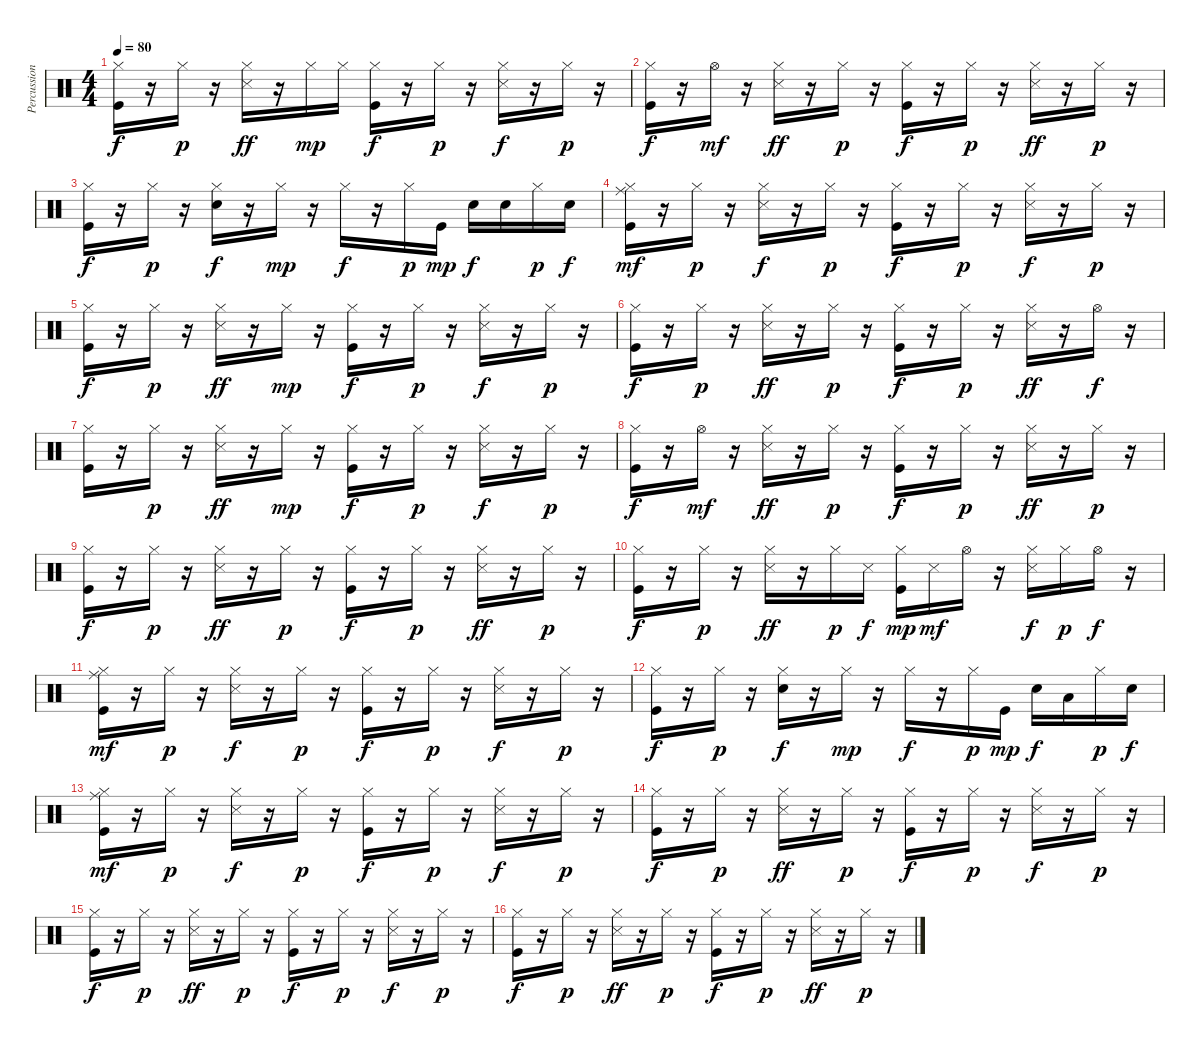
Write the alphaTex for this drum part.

\track ("Percussion" "Percussion") {instrument percussion}
\staff {score}
\articulation defaults
\ts (4 4)
\tempo 80
\clef neutral
\ks c
("Kick (hit)" "Hi-Hat (closed)").16{dy f} r.16 "Hi-Hat (closed)".16{dy p} r.16 ("Hi-Hat (closed)" "Snare (side stick) 3").16{dy ff} r.16 "Hi-Hat (closed)".16{dy mp} "Hi-Hat (closed)".16 ("Kick (hit)" "Hi-Hat (closed)").16{dy f} r.16 "Hi-Hat (closed)".16{dy p} r.16 ("Hi-Hat (closed)" "Snare (side stick) 3").16{dy f} r.16 "Hi-Hat (closed)".16{dy p} r.16 |
("Kick (hit)" "Hi-Hat (closed)").16{dy f} r.16 "Hi-Hat (open)".16{dy mf} r.16 ("Hi-Hat (closed)" "Snare (side stick) 3").16{dy ff} r.16 "Hi-Hat (closed)".16{dy p} r.16 ("Kick (hit)" "Hi-Hat (closed)").16{dy f} r.16 "Hi-Hat (closed)".16{dy p} r.16 ("Hi-Hat (closed)" "Snare (side stick) 3").16{dy ff} r.16 "Hi-Hat (closed)".16{dy p} r.16 |
("Kick (hit)" "Hi-Hat (closed)").16{dy f} r.16 "Hi-Hat (closed)".16{dy p} r.16 ("Snare (hit) 2" "Hi-Hat (closed)").16{dy f} r.16 "Hi-Hat (closed)".16{dy mp} r.16 "Hi-Hat (closed)".16{dy f} r.16 "Hi-Hat (closed)".16{dy p} "Kick (hit)".16{dy mp} "Snare (hit) 2".16{dy f} "Snare (hit) 2".16 "Hi-Hat (closed)".16{dy p} "Snare (hit) 2".16{dy f} |
("Kick (hit)" "Hi-Hat (closed)" "Ride (middle)").16{dy mf} r.16 "Hi-Hat (closed)".16{dy p} r.16 ("Hi-Hat (closed)" "Snare (side stick) 3").16{dy f} r.16 "Hi-Hat (closed)".16{dy p} r.16 ("Kick (hit)" "Hi-Hat (closed)").16{dy f} r.16 "Hi-Hat (closed)".16{dy p} r.16 ("Hi-Hat (closed)" "Snare (side stick) 3").16{dy f} r.16 "Hi-Hat (closed)".16{dy p} r.16 |
("Kick (hit)" "Hi-Hat (closed)").16{dy f} r.16 "Hi-Hat (closed)".16{dy p} r.16 ("Hi-Hat (closed)" "Snare (side stick) 3").16{dy ff} r.16 "Hi-Hat (closed)".16{dy mp} r.16 ("Kick (hit)" "Hi-Hat (closed)").16{dy f} r.16 "Hi-Hat (closed)".16{dy p} r.16 ("Hi-Hat (closed)" "Snare (side stick) 3").16{dy f} r.16 "Hi-Hat (closed)".16{dy p} r.16 |
("Kick (hit)" "Hi-Hat (closed)").16{dy f} r.16 "Hi-Hat (closed)".16{dy p} r.16 ("Hi-Hat (closed)" "Snare (side stick) 3").16{dy ff} r.16 "Hi-Hat (closed)".16{dy p} r.16 ("Kick (hit)" "Hi-Hat (closed)").16{dy f} r.16 "Hi-Hat (closed)".16{dy p} r.16 ("Hi-Hat (closed)" "Snare (side stick) 3").16{dy ff} r.16 "Hi-Hat (open)".16{dy f} r.16 |
("Kick (hit)" "Hi-Hat (closed)").16 r.16 "Hi-Hat (closed)".16{dy p} r.16 ("Hi-Hat (closed)" "Snare (side stick) 3").16{dy ff} r.16 "Hi-Hat (closed)".16{dy mp} r.16 ("Kick (hit)" "Hi-Hat (closed)").16{dy f} r.16 "Hi-Hat (closed)".16{dy p} r.16 ("Hi-Hat (closed)" "Snare (side stick) 3").16{dy f} r.16 "Hi-Hat (closed)".16{dy p} r.16 |
("Kick (hit)" "Hi-Hat (closed)").16{dy f} r.16 "Hi-Hat (open)".16{dy mf} r.16 ("Hi-Hat (closed)" "Snare (side stick) 3").16{dy ff} r.16 "Hi-Hat (closed)".16{dy p} r.16 ("Kick (hit)" "Hi-Hat (closed)").16{dy f} r.16 "Hi-Hat (closed)".16{dy p} r.16 ("Hi-Hat (closed)" "Snare (side stick) 3").16{dy ff} r.16 "Hi-Hat (closed)".16{dy p} r.16 |
("Kick (hit)" "Hi-Hat (closed)").16{dy f} r.16 "Hi-Hat (closed)".16{dy p} r.16 ("Hi-Hat (closed)" "Snare (side stick) 3").16{dy ff} r.16 "Hi-Hat (closed)".16{dy p} r.16 ("Kick (hit)" "Hi-Hat (closed)").16{dy f} r.16 "Hi-Hat (closed)".16{dy p} r.16 ("Hi-Hat (closed)" "Snare (side stick) 3").16{dy ff} r.16 "Hi-Hat (closed)".16{dy p} r.16 |
("Kick (hit)" "Hi-Hat (closed)").16{dy f} r.16 "Hi-Hat (closed)".16{dy p} r.16 ("Hi-Hat (closed)" "Snare (side stick) 3").16{dy ff} r.16 "Hi-Hat (closed)".16{dy p} "Snare (side stick) 3".16{dy f} ("Kick (hit)" "Hi-Hat (closed)").16{dy mp} "Snare (side stick) 3".16{dy mf} "Hi-Hat (open)".16 r.16 ("Hi-Hat (closed)" "Snare (side stick) 3").16{dy f} "Hi-Hat (closed)".16{dy p} "Hi-Hat (open)".16{dy f} r.16 |
("Kick (hit)" "Hi-Hat (closed)" "Ride (middle)").16{dy mf} r.16 "Hi-Hat (closed)".16{dy p} r.16 ("Hi-Hat (closed)" "Snare (side stick) 3").16{dy f} r.16 "Hi-Hat (closed)".16{dy p} r.16 ("Kick (hit)" "Hi-Hat (closed)").16{dy f} r.16 "Hi-Hat (closed)".16{dy p} r.16 ("Hi-Hat (closed)" "Snare (side stick) 3").16{dy f} r.16 "Hi-Hat (closed)".16{dy p} r.16 |
("Kick (hit)" "Hi-Hat (closed)").16{dy f} r.16 "Hi-Hat (closed)".16{dy p} r.16 ("Snare (hit) 2" "Hi-Hat (closed)").16{dy f} r.16 "Hi-Hat (closed)".16{dy mp} r.16 "Hi-Hat (closed)".16{dy f} r.16 "Hi-Hat (closed)".16{dy p} "Kick (hit)".16{dy mp} "Snare (hit) 2".16{dy f} "Low Tom (hit)".16 "Hi-Hat (closed)".16{dy p} "Snare (hit) 2".16{dy f} |
("Kick (hit)" "Hi-Hat (closed)" "Ride (middle)").16{dy mf} r.16 "Hi-Hat (closed)".16{dy p} r.16 ("Hi-Hat (closed)" "Snare (side stick) 3").16{dy f} r.16 "Hi-Hat (closed)".16{dy p} r.16 ("Kick (hit)" "Hi-Hat (closed)").16{dy f} r.16 "Hi-Hat (closed)".16{dy p} r.16 ("Hi-Hat (closed)" "Snare (side stick) 3").16{dy f} r.16 "Hi-Hat (closed)".16{dy p} r.16 |
("Kick (hit)" "Hi-Hat (closed)").16{dy f} r.16 "Hi-Hat (closed)".16{dy p} r.16 ("Hi-Hat (closed)" "Snare (side stick) 3").16{dy ff} r.16 "Hi-Hat (closed)".16{dy p} r.16 ("Kick (hit)" "Hi-Hat (closed)").16{dy f} r.16 "Hi-Hat (closed)".16{dy p} r.16 ("Hi-Hat (closed)" "Snare (side stick) 3").16{dy f} r.16 "Hi-Hat (closed)".16{dy p} r.16 |
("Kick (hit)" "Hi-Hat (closed)").16{dy f} r.16 "Hi-Hat (closed)".16{dy p} r.16 ("Hi-Hat (closed)" "Snare (side stick) 3").16{dy ff} r.16 "Hi-Hat (closed)".16{dy p} r.16 ("Kick (hit)" "Hi-Hat (closed)").16{dy f} r.16 "Hi-Hat (closed)".16{dy p} r.16 ("Hi-Hat (closed)" "Snare (side stick) 3").16{dy f} r.16 "Hi-Hat (closed)".16{dy p} r.16 |
("Kick (hit)" "Hi-Hat (closed)").16{dy f} r.16 "Hi-Hat (closed)".16{dy p} r.16 ("Hi-Hat (closed)" "Snare (side stick) 3").16{dy ff} r.16 "Hi-Hat (closed)".16{dy p} r.16 ("Kick (hit)" "Hi-Hat (closed)").16{dy f} r.16 "Hi-Hat (closed)".16{dy p} r.16 ("Hi-Hat (closed)" "Snare (side stick) 3").16{dy ff} r.16 "Hi-Hat (closed)".16{dy p} r.16
